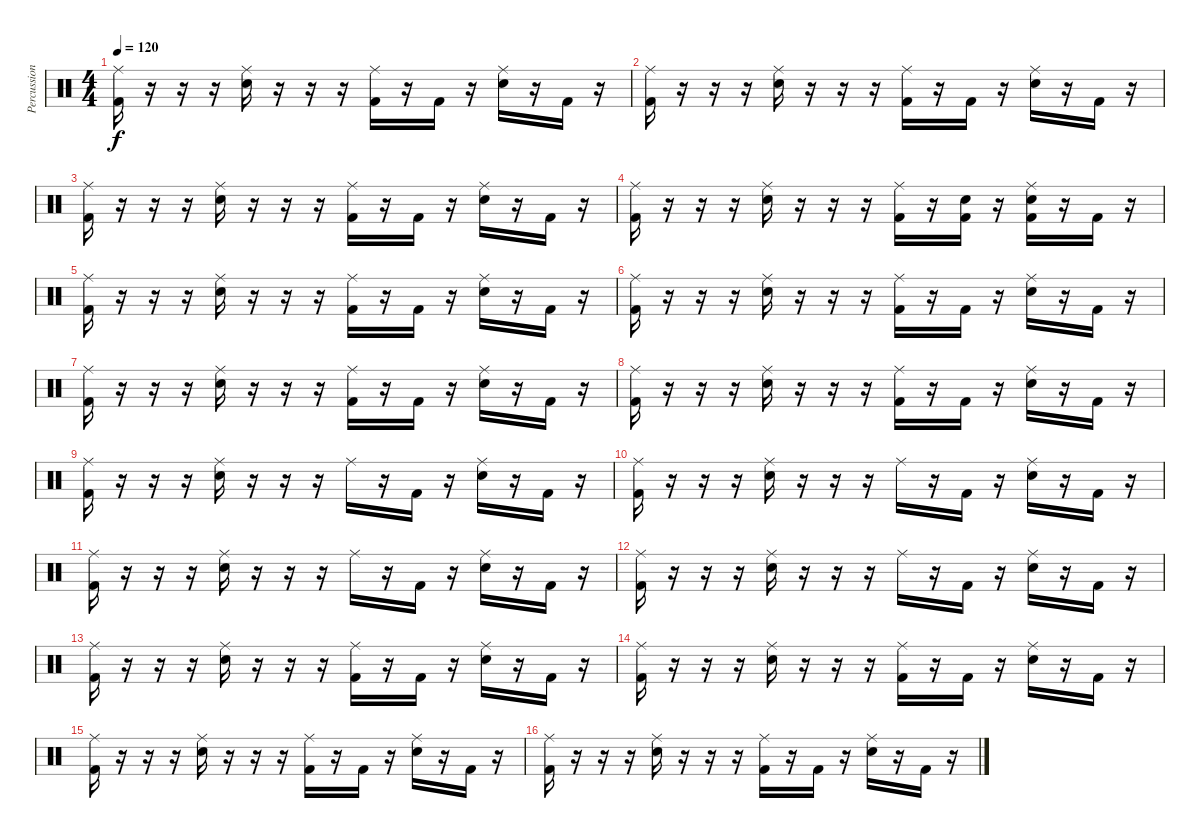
\track ("Percussion" "Percussion") {instrument percussion}
\staff {score}
\articulation defaults
\ts (4 4)
\tempo 120
\clef neutral
\ks c
("Ride (middle)" "Kick (hit) 2").16{dy f} r.16 r.16 r.16 ("Ride (middle)" "Electric Snare (hit)").16 r.16 r.16 r.16 ("Ride (middle)" "Kick (hit) 2").16 r.16 "Kick (hit) 2".16 r.16 ("Ride (middle)" "Electric Snare (hit)").16 r.16 "Kick (hit) 2".16 r.16 |
("Ride (middle)" "Kick (hit) 2").16 r.16 r.16 r.16 ("Ride (middle)" "Electric Snare (hit)").16 r.16 r.16 r.16 ("Ride (middle)" "Kick (hit) 2").16 r.16 "Kick (hit) 2".16 r.16 ("Ride (middle)" "Electric Snare (hit)").16 r.16 "Kick (hit) 2".16 r.16 |
("Ride (middle)" "Kick (hit) 2").16 r.16 r.16 r.16 ("Ride (middle)" "Electric Snare (hit)").16 r.16 r.16 r.16 ("Ride (middle)" "Kick (hit) 2").16 r.16 "Kick (hit) 2".16 r.16 ("Ride (middle)" "Electric Snare (hit)").16 r.16 "Kick (hit) 2".16 r.16 |
("Ride (middle)" "Kick (hit) 2").16 r.16 r.16 r.16 ("Ride (middle)" "Electric Snare (hit)").16 r.16 r.16 r.16 ("Ride (middle)" "Kick (hit) 2").16 r.16 ("Electric Snare (hit)" "Kick (hit) 2").16 r.16 ("Ride (middle)" "Electric Snare (hit)" "Kick (hit) 2").16 r.16 "Kick (hit) 2".16 r.16 |
("Ride (middle)" "Kick (hit) 2").16 r.16 r.16 r.16 ("Ride (middle)" "Electric Snare (hit)").16 r.16 r.16 r.16 ("Ride (middle)" "Kick (hit) 2").16 r.16 "Kick (hit) 2".16 r.16 ("Ride (middle)" "Electric Snare (hit)").16 r.16 "Kick (hit) 2".16 r.16 |
("Ride (middle)" "Kick (hit) 2").16 r.16 r.16 r.16 ("Ride (middle)" "Electric Snare (hit)").16 r.16 r.16 r.16 ("Ride (middle)" "Kick (hit) 2").16 r.16 "Kick (hit) 2".16 r.16 ("Ride (middle)" "Electric Snare (hit)").16 r.16 "Kick (hit) 2".16 r.16 |
("Ride (middle)" "Kick (hit) 2").16 r.16 r.16 r.16 ("Ride (middle)" "Electric Snare (hit)").16 r.16 r.16 r.16 ("Ride (middle)" "Kick (hit) 2").16 r.16 "Kick (hit) 2".16 r.16 ("Ride (middle)" "Electric Snare (hit)").16 r.16 "Kick (hit) 2".16 r.16 |
("Ride (middle)" "Kick (hit) 2").16 r.16 r.16 r.16 ("Ride (middle)" "Electric Snare (hit)").16 r.16 r.16 r.16 ("Ride (middle)" "Kick (hit) 2").16 r.16 "Kick (hit) 2".16 r.16 ("Ride (middle)" "Electric Snare (hit)").16 r.16 "Kick (hit) 2".16 r.16 |
("Ride (middle)" "Kick (hit) 2").16 r.16 r.16 r.16 ("Ride (middle)" "Electric Snare (hit)").16 r.16 r.16 r.16 "Ride (middle)".16 r.16 "Kick (hit) 2".16 r.16 ("Ride (middle)" "Electric Snare (hit)").16 r.16 "Kick (hit) 2".16 r.16 |
("Ride (middle)" "Kick (hit) 2").16 r.16 r.16 r.16 ("Ride (middle)" "Electric Snare (hit)").16 r.16 r.16 r.16 "Ride (middle)".16 r.16 "Kick (hit) 2".16 r.16 ("Ride (middle)" "Electric Snare (hit)").16 r.16 "Kick (hit) 2".16 r.16 |
("Ride (middle)" "Kick (hit) 2").16 r.16 r.16 r.16 ("Ride (middle)" "Electric Snare (hit)").16 r.16 r.16 r.16 "Ride (middle)".16 r.16 "Kick (hit) 2".16 r.16 ("Ride (middle)" "Electric Snare (hit)").16 r.16 "Kick (hit) 2".16 r.16 |
("Ride (middle)" "Kick (hit) 2").16 r.16 r.16 r.16 ("Ride (middle)" "Electric Snare (hit)").16 r.16 r.16 r.16 "Ride (middle)".16 r.16 "Kick (hit) 2".16 r.16 ("Ride (middle)" "Electric Snare (hit)").16 r.16 "Kick (hit) 2".16 r.16 |
("Ride (middle)" "Kick (hit) 2").16 r.16 r.16 r.16 ("Ride (middle)" "Electric Snare (hit)").16 r.16 r.16 r.16 ("Ride (middle)" "Kick (hit) 2").16 r.16 "Kick (hit) 2".16 r.16 ("Ride (middle)" "Electric Snare (hit)").16 r.16 "Kick (hit) 2".16 r.16 |
("Ride (middle)" "Kick (hit) 2").16 r.16 r.16 r.16 ("Ride (middle)" "Electric Snare (hit)").16 r.16 r.16 r.16 ("Ride (middle)" "Kick (hit) 2").16 r.16 "Kick (hit) 2".16 r.16 ("Ride (middle)" "Electric Snare (hit)").16 r.16 "Kick (hit) 2".16 r.16 |
("Ride (middle)" "Kick (hit) 2").16 r.16 r.16 r.16 ("Ride (middle)" "Electric Snare (hit)").16 r.16 r.16 r.16 ("Ride (middle)" "Kick (hit) 2").16 r.16 "Kick (hit) 2".16 r.16 ("Ride (middle)" "Electric Snare (hit)").16 r.16 "Kick (hit) 2".16 r.16 |
("Ride (middle)" "Kick (hit) 2").16 r.16 r.16 r.16 ("Ride (middle)" "Electric Snare (hit)").16 r.16 r.16 r.16 ("Ride (middle)" "Kick (hit) 2").16 r.16 "Kick (hit) 2".16 r.16 ("Ride (middle)" "Electric Snare (hit)").16 r.16 "Kick (hit) 2".16 r.16
